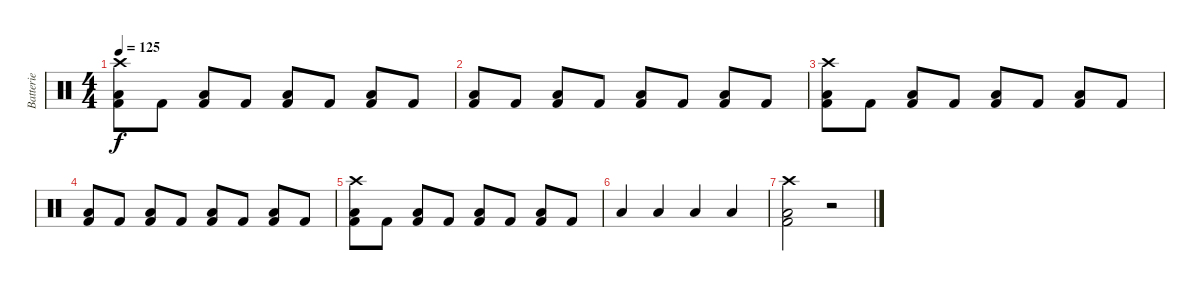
\track ("Batterie" "Batterie") {instrument percussion}
\staff {score}
\articulation defaults
\ts (4 4)
\tempo 125
\clef neutral
\ks c
("Crash high (hit)" "Kick (hit) 2" "Low Tom (hit)").8{dy f} "Kick (hit) 2".8 ("Low Tom (hit)" "Kick (hit) 2").8 "Kick (hit) 2".8 ("Low Tom (hit)" "Kick (hit) 2").8 "Kick (hit) 2".8 ("Low Tom (hit)" "Kick (hit) 2").8 "Kick (hit) 2".8 |
("Low Tom (hit)" "Kick (hit) 2").8 "Kick (hit) 2".8 ("Low Tom (hit)" "Kick (hit) 2").8 "Kick (hit) 2".8 ("Low Tom (hit)" "Kick (hit) 2").8 "Kick (hit) 2".8 ("Low Tom (hit)" "Kick (hit) 2").8 "Kick (hit) 2".8 |
("Crash high (hit)" "Kick (hit) 2" "Low Tom (hit)").8 "Kick (hit) 2".8 ("Low Tom (hit)" "Kick (hit) 2").8 "Kick (hit) 2".8 ("Low Tom (hit)" "Kick (hit) 2").8 "Kick (hit) 2".8 ("Low Tom (hit)" "Kick (hit) 2").8 "Kick (hit) 2".8 |
("Low Tom (hit)" "Kick (hit) 2").8 "Kick (hit) 2".8 ("Low Tom (hit)" "Kick (hit) 2").8 "Kick (hit) 2".8 ("Low Tom (hit)" "Kick (hit) 2").8 "Kick (hit) 2".8 ("Low Tom (hit)" "Kick (hit) 2").8 "Kick (hit) 2".8 |
("Crash high (hit)" "Kick (hit) 2" "Low Tom (hit)").8 "Kick (hit) 2".8 ("Low Tom (hit)" "Kick (hit) 2").8 "Kick (hit) 2".8 ("Low Tom (hit)" "Kick (hit) 2").8 "Kick (hit) 2".8 ("Low Tom (hit)" "Kick (hit) 2").8 "Kick (hit) 2".8 |
"Low Tom (hit)".4 "Low Tom (hit)".4 "Low Tom (hit)".4 "Low Tom (hit)".4 |
("Crash high (hit)" "Kick (hit) 2" "Low Tom (hit)").2 r.2
